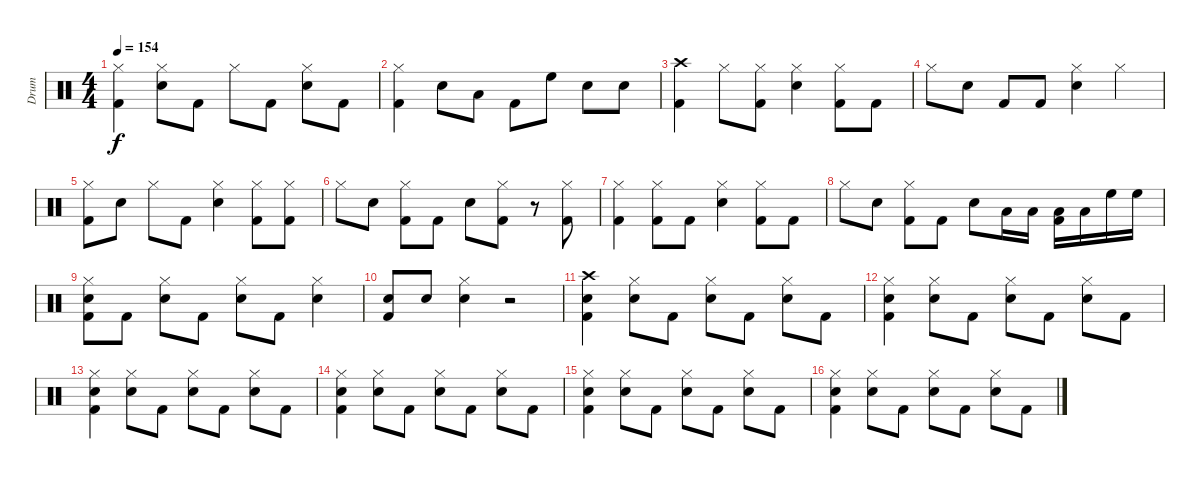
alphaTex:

\track ("Drum" "Drum") {instrument percussion}
\staff {score}
\articulation defaults
\ts (4 4)
\tempo 154
\clef neutral
\ks c
("Hi-Hat (closed)" "Kick (hit) 2").4{dy f} ("Hi-Hat (closed)" "Electric Snare (hit)").8 "Kick (hit) 2".8 "Hi-Hat (closed)".8 "Kick (hit) 2".8 ("Hi-Hat (closed)" "Electric Snare (hit)").8 "Kick (hit) 2".8 |
("Hi-Hat (closed)" "Kick (hit) 2").4 "Electric Snare (hit)".8 "Low Tom (hit)".8 "Kick (hit) 2".8 "High Floor Tom (hit)".8 "Electric Snare (hit)".8 "Electric Snare (hit)".8 |
("Crash high (hit)" "Kick (hit) 2").4 "Hi-Hat (closed)".8 ("Hi-Hat (closed)" "Kick (hit) 2").8 ("Hi-Hat (closed)" "Electric Snare (hit)").4 ("Hi-Hat (closed)" "Kick (hit) 2").8 "Kick (hit) 2".8 |
"Hi-Hat (closed)".8 "Electric Snare (hit)".8 "Kick (hit) 2".8 "Kick (hit) 2".8 ("Hi-Hat (closed)" "Electric Snare (hit)").4 "Hi-Hat (closed)".4 |
("Hi-Hat (closed)" "Kick (hit) 2").8 "Electric Snare (hit)".8 "Hi-Hat (closed)".8 "Kick (hit) 2".8 ("Hi-Hat (closed)" "Electric Snare (hit)").4 ("Hi-Hat (closed)" "Kick (hit) 2").8 ("Hi-Hat (closed)" "Kick (hit) 2").8 |
"Hi-Hat (closed)".8 "Electric Snare (hit)".8 ("Hi-Hat (closed)" "Kick (hit) 2").8 "Kick (hit) 2".8 "Electric Snare (hit)".8 ("Hi-Hat (closed)" "Kick (hit) 2").8 r.8 ("Hi-Hat (closed)" "Kick (hit) 2").8 |
("Hi-Hat (closed)" "Kick (hit) 2").4 ("Hi-Hat (closed)" "Kick (hit) 2").8 "Kick (hit) 2".8 ("Hi-Hat (closed)" "Electric Snare (hit)").4 ("Hi-Hat (closed)" "Kick (hit) 2").8 "Kick (hit) 2".8 |
"Hi-Hat (closed)".8 "Electric Snare (hit)".8 ("Hi-Hat (closed)" "Kick (hit) 2").8 "Kick (hit) 2".8 "Electric Snare (hit)".8 "Low Tom (hit)".16 "Low Tom (hit)".16 ("Low Tom (hit)" "Kick (hit) 2").16 "Low Tom (hit)".16 "High Floor Tom (hit)".16 "High Floor Tom (hit)".16 |
("Hi-Hat (closed)" "Electric Snare (hit)" "Kick (hit) 2").8 "Kick (hit) 2".8 ("Hi-Hat (closed)" "Electric Snare (hit)").8 "Kick (hit) 2".8 ("Hi-Hat (closed)" "Electric Snare (hit)").8 "Kick (hit) 2".8 ("Hi-Hat (closed)" "Electric Snare (hit)").4 |
("Electric Snare (hit)" "Kick (hit) 2").8 "Electric Snare (hit)".8 ("Hi-Hat (closed)" "Electric Snare (hit)").4 r.2 |
("Crash high (hit)" "Electric Snare (hit)" "Kick (hit) 2").4 ("Hi-Hat (closed)" "Electric Snare (hit)").8 "Kick (hit) 2".8 ("Hi-Hat (closed)" "Electric Snare (hit)").8 "Kick (hit) 2".8 ("Hi-Hat (closed)" "Electric Snare (hit)").8 "Kick (hit) 2".8 |
("Hi-Hat (closed)" "Electric Snare (hit)" "Kick (hit) 2").4 ("Hi-Hat (closed)" "Electric Snare (hit)").8 "Kick (hit) 2".8 ("Hi-Hat (closed)" "Electric Snare (hit)").8 "Kick (hit) 2".8 ("Hi-Hat (closed)" "Electric Snare (hit)").8 "Kick (hit) 2".8 |
("Hi-Hat (closed)" "Electric Snare (hit)" "Kick (hit) 2").4 ("Hi-Hat (closed)" "Electric Snare (hit)").8 "Kick (hit) 2".8 ("Hi-Hat (closed)" "Electric Snare (hit)").8 "Kick (hit) 2".8 ("Hi-Hat (closed)" "Electric Snare (hit)").8 "Kick (hit) 2".8 |
("Hi-Hat (closed)" "Electric Snare (hit)" "Kick (hit) 2").4 ("Hi-Hat (closed)" "Electric Snare (hit)").8 "Kick (hit) 2".8 ("Hi-Hat (closed)" "Electric Snare (hit)").8 "Kick (hit) 2".8 ("Hi-Hat (closed)" "Electric Snare (hit)").8 "Kick (hit) 2".8 |
("Hi-Hat (closed)" "Electric Snare (hit)" "Kick (hit) 2").4 ("Hi-Hat (closed)" "Electric Snare (hit)").8 "Kick (hit) 2".8 ("Hi-Hat (closed)" "Electric Snare (hit)").8 "Kick (hit) 2".8 ("Hi-Hat (closed)" "Electric Snare (hit)").8 "Kick (hit) 2".8 |
("Hi-Hat (closed)" "Electric Snare (hit)" "Kick (hit) 2").4 ("Hi-Hat (closed)" "Electric Snare (hit)").8 "Kick (hit) 2".8 ("Hi-Hat (closed)" "Electric Snare (hit)").8 "Kick (hit) 2".8 ("Hi-Hat (closed)" "Electric Snare (hit)").8 "Kick (hit) 2".8
